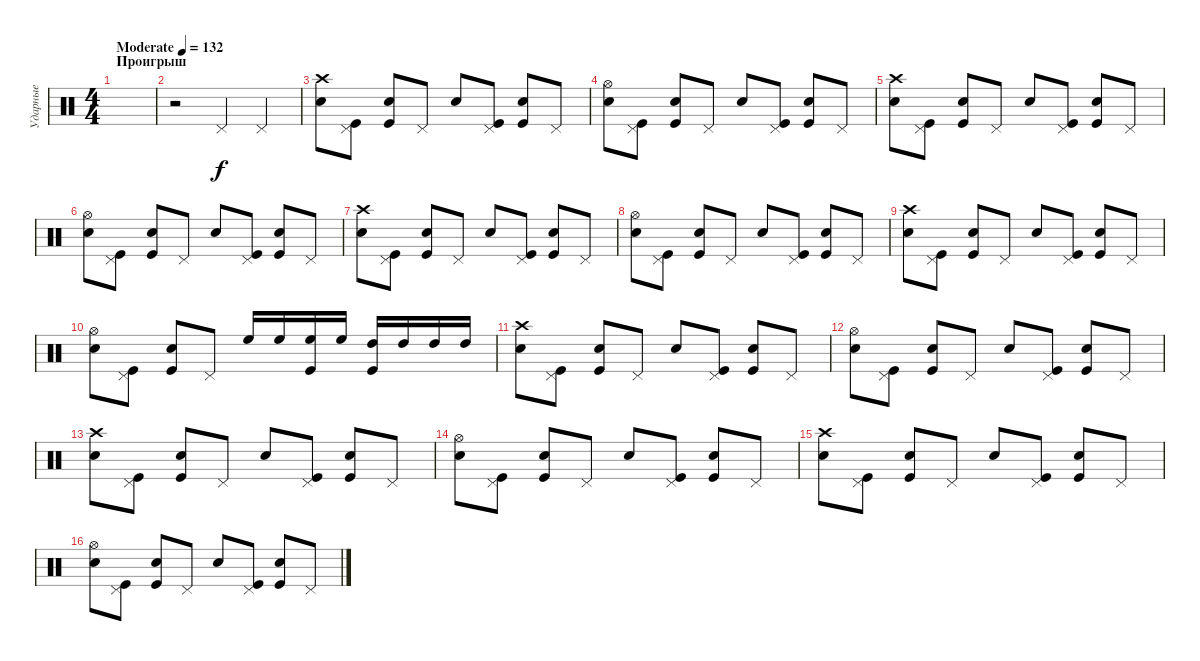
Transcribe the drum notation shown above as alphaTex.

\track ("Ударные" "Ударные") {instrument percussion}
\staff {score}
\articulation defaults
\ts (4 4)
\section ("" "Проигрыш")
\tempo (132 "Moderate")
\clef neutral
\ks c
|
r.2 "Pedal Hi-Hat (hit)".4 "Pedal Hi-Hat (hit)".4 |
("Crash high (hit)" "Snare (hit) 2").8 ("Pedal Hi-Hat (hit)" "Kick (hit)").8 ("Snare (hit) 2" "Kick (hit)").8 "Pedal Hi-Hat (hit)".8 "Snare (hit) 2".8 ("Pedal Hi-Hat (hit)" "Kick (hit)").8 ("Snare (hit) 2" "Kick (hit)").8 "Pedal Hi-Hat (hit)".8 |
("Hi-Hat (open)" "Snare (hit) 2").8 ("Pedal Hi-Hat (hit)" "Kick (hit)").8 ("Snare (hit) 2" "Kick (hit)").8 "Pedal Hi-Hat (hit)".8 "Snare (hit) 2".8 ("Pedal Hi-Hat (hit)" "Kick (hit)").8 ("Snare (hit) 2" "Kick (hit)").8 "Pedal Hi-Hat (hit)".8 |
("Crash high (hit)" "Snare (hit) 2").8 ("Pedal Hi-Hat (hit)" "Kick (hit)").8 ("Snare (hit) 2" "Kick (hit)").8 "Pedal Hi-Hat (hit)".8 "Snare (hit) 2".8 ("Pedal Hi-Hat (hit)" "Kick (hit)").8 ("Snare (hit) 2" "Kick (hit)").8 "Pedal Hi-Hat (hit)".8 |
("Hi-Hat (open)" "Snare (hit) 2").8 ("Pedal Hi-Hat (hit)" "Kick (hit)").8 ("Snare (hit) 2" "Kick (hit)").8 "Pedal Hi-Hat (hit)".8 "Snare (hit) 2".8 ("Pedal Hi-Hat (hit)" "Kick (hit)").8 ("Snare (hit) 2" "Kick (hit)").8 "Pedal Hi-Hat (hit)".8 |
("Crash high (hit)" "Snare (hit) 2").8 ("Pedal Hi-Hat (hit)" "Kick (hit)").8 ("Snare (hit) 2" "Kick (hit)").8 "Pedal Hi-Hat (hit)".8 "Snare (hit) 2".8 ("Pedal Hi-Hat (hit)" "Kick (hit)").8 ("Snare (hit) 2" "Kick (hit)").8 "Pedal Hi-Hat (hit)".8 |
("Hi-Hat (open)" "Snare (hit) 2").8 ("Pedal Hi-Hat (hit)" "Kick (hit)").8 ("Snare (hit) 2" "Kick (hit)").8 "Pedal Hi-Hat (hit)".8 "Snare (hit) 2".8 ("Pedal Hi-Hat (hit)" "Kick (hit)").8 ("Snare (hit) 2" "Kick (hit)").8 "Pedal Hi-Hat (hit)".8 |
("Crash high (hit)" "Snare (hit) 2").8 ("Pedal Hi-Hat (hit)" "Kick (hit)").8 ("Snare (hit) 2" "Kick (hit)").8 "Pedal Hi-Hat (hit)".8 "Snare (hit) 2".8 ("Pedal Hi-Hat (hit)" "Kick (hit)").8 ("Snare (hit) 2" "Kick (hit)").8 "Pedal Hi-Hat (hit)".8 |
("Hi-Hat (open)" "Snare (hit) 2").8 ("Pedal Hi-Hat (hit)" "Kick (hit)").8 ("Snare (hit) 2" "Kick (hit)").8 "Pedal Hi-Hat (hit)".8 "High Floor Tom (hit)".16 "High Floor Tom (hit)".16 ("High Floor Tom (hit)" "Kick (hit)").16 "High Floor Tom (hit)".16 ("High Tom (hit)" "Kick (hit)").16 "High Tom (hit)".16 "High Tom (hit)".16 "High Tom (hit)".16 |
("Crash high (hit)" "Snare (hit) 2").8 ("Pedal Hi-Hat (hit)" "Kick (hit)").8 ("Snare (hit) 2" "Kick (hit)").8 "Pedal Hi-Hat (hit)".8 "Snare (hit) 2".8 ("Pedal Hi-Hat (hit)" "Kick (hit)").8 ("Snare (hit) 2" "Kick (hit)").8 "Pedal Hi-Hat (hit)".8 |
("Hi-Hat (open)" "Snare (hit) 2").8 ("Pedal Hi-Hat (hit)" "Kick (hit)").8 ("Snare (hit) 2" "Kick (hit)").8 "Pedal Hi-Hat (hit)".8 "Snare (hit) 2".8 ("Pedal Hi-Hat (hit)" "Kick (hit)").8 ("Snare (hit) 2" "Kick (hit)").8 "Pedal Hi-Hat (hit)".8 |
("Crash high (hit)" "Snare (hit) 2").8 ("Pedal Hi-Hat (hit)" "Kick (hit)").8 ("Snare (hit) 2" "Kick (hit)").8 "Pedal Hi-Hat (hit)".8 "Snare (hit) 2".8 ("Pedal Hi-Hat (hit)" "Kick (hit)").8 ("Snare (hit) 2" "Kick (hit)").8 "Pedal Hi-Hat (hit)".8 |
("Hi-Hat (open)" "Snare (hit) 2").8 ("Pedal Hi-Hat (hit)" "Kick (hit)").8 ("Snare (hit) 2" "Kick (hit)").8 "Pedal Hi-Hat (hit)".8 "Snare (hit) 2".8 ("Pedal Hi-Hat (hit)" "Kick (hit)").8 ("Snare (hit) 2" "Kick (hit)").8 "Pedal Hi-Hat (hit)".8 |
("Crash high (hit)" "Snare (hit) 2").8 ("Pedal Hi-Hat (hit)" "Kick (hit)").8 ("Snare (hit) 2" "Kick (hit)").8 "Pedal Hi-Hat (hit)".8 "Snare (hit) 2".8 ("Pedal Hi-Hat (hit)" "Kick (hit)").8 ("Snare (hit) 2" "Kick (hit)").8 "Pedal Hi-Hat (hit)".8 |
("Hi-Hat (open)" "Snare (hit) 2").8 ("Pedal Hi-Hat (hit)" "Kick (hit)").8 ("Snare (hit) 2" "Kick (hit)").8 "Pedal Hi-Hat (hit)".8 "Snare (hit) 2".8 ("Pedal Hi-Hat (hit)" "Kick (hit)").8 ("Snare (hit) 2" "Kick (hit)").8 "Pedal Hi-Hat (hit)".8
